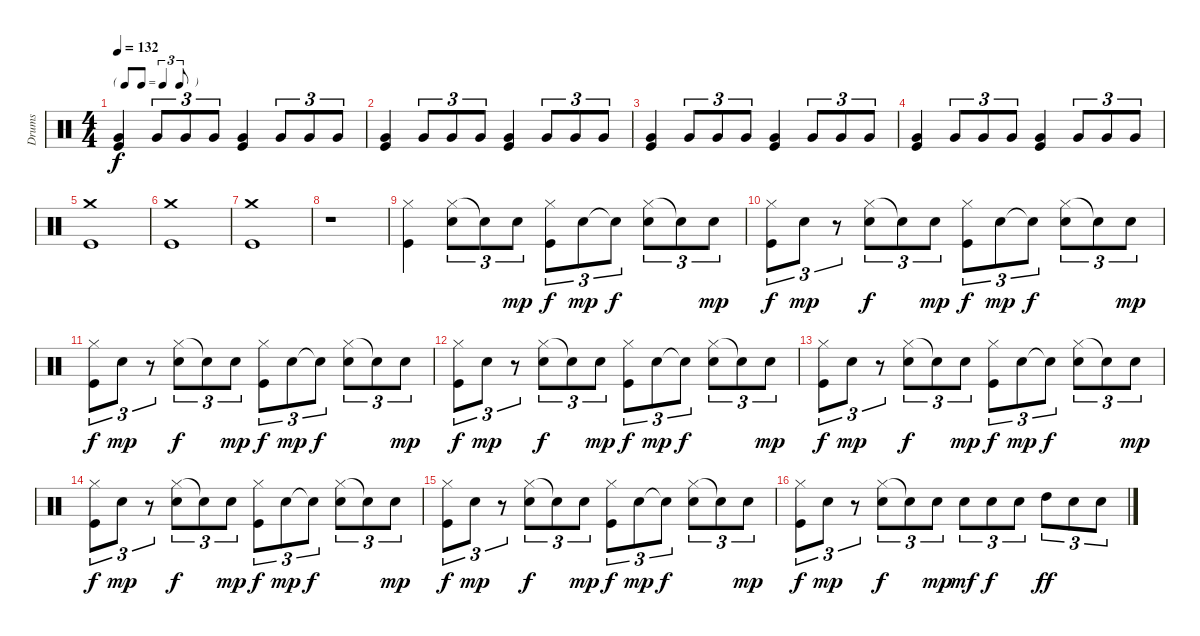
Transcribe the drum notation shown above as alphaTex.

\track ("Drums" "Drums") {instrument percussion}
\staff {score}
\articulation defaults
\ts (4 4)
\tf triplet8th
\tempo 132
\clef neutral
\ks c
("Very Low Tom (hit)" "Kick (hit)").4{dy f} "Very Low Tom (hit)".8{tu (3 2)} "Very Low Tom (hit)".8{tu (3 2)} "Very Low Tom (hit)".8{tu (3 2)} ("Very Low Tom (hit)" "Kick (hit)").4 "Very Low Tom (hit)".8{tu (3 2)} "Very Low Tom (hit)".8{tu (3 2)} "Very Low Tom (hit)".8{tu (3 2)} |
("Very Low Tom (hit)" "Kick (hit)").4 "Very Low Tom (hit)".8{tu (3 2)} "Very Low Tom (hit)".8{tu (3 2)} "Very Low Tom (hit)".8{tu (3 2)} ("Very Low Tom (hit)" "Kick (hit)").4 "Very Low Tom (hit)".8{tu (3 2)} "Very Low Tom (hit)".8{tu (3 2)} "Very Low Tom (hit)".8{tu (3 2)} |
("Very Low Tom (hit)" "Kick (hit)").4 "Very Low Tom (hit)".8{tu (3 2)} "Very Low Tom (hit)".8{tu (3 2)} "Very Low Tom (hit)".8{tu (3 2)} ("Very Low Tom (hit)" "Kick (hit)").4 "Very Low Tom (hit)".8{tu (3 2)} "Very Low Tom (hit)".8{tu (3 2)} "Very Low Tom (hit)".8{tu (3 2)} |
("Very Low Tom (hit)" "Kick (hit)").4 "Very Low Tom (hit)".8{tu (3 2)} "Very Low Tom (hit)".8{tu (3 2)} "Very Low Tom (hit)".8{tu (3 2)} ("Very Low Tom (hit)" "Kick (hit)").4 "Very Low Tom (hit)".8{tu (3 2)} "Very Low Tom (hit)".8{tu (3 2)} "Very Low Tom (hit)".8{tu (3 2)} |
("Crash medium (hit)" "Kick (hit)").1 |
("Crash medium (hit)" "Kick (hit)").1 |
("Crash medium (hit)" "Kick (hit)").1 |
r.1 |
("Hi-Hat (closed)" "Kick (hit)").4 ("Hi-Hat (closed)" "Electric Snare (hit)").8{tu (3 2)} "Snare (hit)"{t}.8{tu (3 2)} "Electric Snare (hit)".8{tu (3 2) dy mp} ("Hi-Hat (closed)" "Kick (hit)").8{tu (3 2) dy f} "Electric Snare (hit)".8{tu (3 2) dy mp} "Snare (hit)"{t}.8{tu (3 2) dy f} ("Hi-Hat (closed)" "Electric Snare (hit)").8{tu (3 2)} "Snare (hit)"{t}.8{tu (3 2)} "Electric Snare (hit)".8{tu (3 2) dy mp} |
("Hi-Hat (closed)" "Kick (hit)").8{tu (3 2) dy f} "Electric Snare (hit)".8{tu (3 2) dy mp} r.8{tu (3 2)} ("Hi-Hat (closed)" "Electric Snare (hit)").8{tu (3 2) dy f} "Snare (hit)"{t}.8{tu (3 2)} "Electric Snare (hit)".8{tu (3 2) dy mp} ("Hi-Hat (closed)" "Kick (hit)").8{tu (3 2) dy f} "Electric Snare (hit)".8{tu (3 2) dy mp} "Snare (hit)"{t}.8{tu (3 2) dy f} ("Hi-Hat (closed)" "Electric Snare (hit)").8{tu (3 2)} "Snare (hit)"{t}.8{tu (3 2)} "Electric Snare (hit)".8{tu (3 2) dy mp} |
("Hi-Hat (closed)" "Kick (hit)").8{tu (3 2) dy f} "Electric Snare (hit)".8{tu (3 2) dy mp} r.8{tu (3 2)} ("Hi-Hat (closed)" "Electric Snare (hit)").8{tu (3 2) dy f} "Snare (hit)"{t}.8{tu (3 2)} "Electric Snare (hit)".8{tu (3 2) dy mp} ("Hi-Hat (closed)" "Kick (hit)").8{tu (3 2) dy f} "Electric Snare (hit)".8{tu (3 2) dy mp} "Snare (hit)"{t}.8{tu (3 2) dy f} ("Hi-Hat (closed)" "Electric Snare (hit)").8{tu (3 2)} "Snare (hit)"{t}.8{tu (3 2)} "Electric Snare (hit)".8{tu (3 2) dy mp} |
("Hi-Hat (closed)" "Kick (hit)").8{tu (3 2) dy f} "Electric Snare (hit)".8{tu (3 2) dy mp} r.8{tu (3 2)} ("Hi-Hat (closed)" "Electric Snare (hit)").8{tu (3 2) dy f} "Snare (hit)"{t}.8{tu (3 2)} "Electric Snare (hit)".8{tu (3 2) dy mp} ("Hi-Hat (closed)" "Kick (hit)").8{tu (3 2) dy f} "Electric Snare (hit)".8{tu (3 2) dy mp} "Snare (hit)"{t}.8{tu (3 2) dy f} ("Hi-Hat (closed)" "Electric Snare (hit)").8{tu (3 2)} "Snare (hit)"{t}.8{tu (3 2)} "Electric Snare (hit)".8{tu (3 2) dy mp} |
("Hi-Hat (closed)" "Kick (hit)").8{tu (3 2) dy f} "Electric Snare (hit)".8{tu (3 2) dy mp} r.8{tu (3 2)} ("Hi-Hat (closed)" "Electric Snare (hit)").8{tu (3 2) dy f} "Snare (hit)"{t}.8{tu (3 2)} "Electric Snare (hit)".8{tu (3 2) dy mp} ("Hi-Hat (closed)" "Kick (hit)").8{tu (3 2) dy f} "Electric Snare (hit)".8{tu (3 2) dy mp} "Snare (hit)"{t}.8{tu (3 2) dy f} ("Hi-Hat (closed)" "Electric Snare (hit)").8{tu (3 2)} "Snare (hit)"{t}.8{tu (3 2)} "Electric Snare (hit)".8{tu (3 2) dy mp} |
("Hi-Hat (closed)" "Kick (hit)").8{tu (3 2) dy f} "Electric Snare (hit)".8{tu (3 2) dy mp} r.8{tu (3 2)} ("Hi-Hat (closed)" "Electric Snare (hit)").8{tu (3 2) dy f} "Snare (hit)"{t}.8{tu (3 2)} "Electric Snare (hit)".8{tu (3 2) dy mp} ("Hi-Hat (closed)" "Kick (hit)").8{tu (3 2) dy f} "Electric Snare (hit)".8{tu (3 2) dy mp} "Snare (hit)"{t}.8{tu (3 2) dy f} ("Hi-Hat (closed)" "Electric Snare (hit)").8{tu (3 2)} "Snare (hit)"{t}.8{tu (3 2)} "Electric Snare (hit)".8{tu (3 2) dy mp} |
("Hi-Hat (closed)" "Kick (hit)").8{tu (3 2) dy f} "Electric Snare (hit)".8{tu (3 2) dy mp} r.8{tu (3 2)} ("Hi-Hat (closed)" "Electric Snare (hit)").8{tu (3 2) dy f} "Snare (hit)"{t}.8{tu (3 2)} "Electric Snare (hit)".8{tu (3 2) dy mp} ("Hi-Hat (closed)" "Kick (hit)").8{tu (3 2) dy f} "Electric Snare (hit)".8{tu (3 2) dy mp} "Snare (hit)"{t}.8{tu (3 2) dy f} ("Hi-Hat (closed)" "Electric Snare (hit)").8{tu (3 2)} "Snare (hit)"{t}.8{tu (3 2)} "Electric Snare (hit)".8{tu (3 2) dy mp} |
("Hi-Hat (closed)" "Kick (hit)").8{tu (3 2) dy f} "Electric Snare (hit)".8{tu (3 2) dy mp} r.8{tu (3 2)} ("Hi-Hat (closed)" "Electric Snare (hit)").8{tu (3 2) dy f} "Snare (hit)"{t}.8{tu (3 2)} "Electric Snare (hit)".8{tu (3 2) dy mp} "Electric Snare (hit)".8{tu (3 2) dy mf} "Electric Snare (hit)".8{tu (3 2) dy f} "Electric Snare (hit)".8{tu (3 2)} "High Tom (hit)".8{tu (3 2) dy ff} "Electric Snare (hit)".8{tu (3 2)} "Electric Snare (hit)".8{tu (3 2)}
